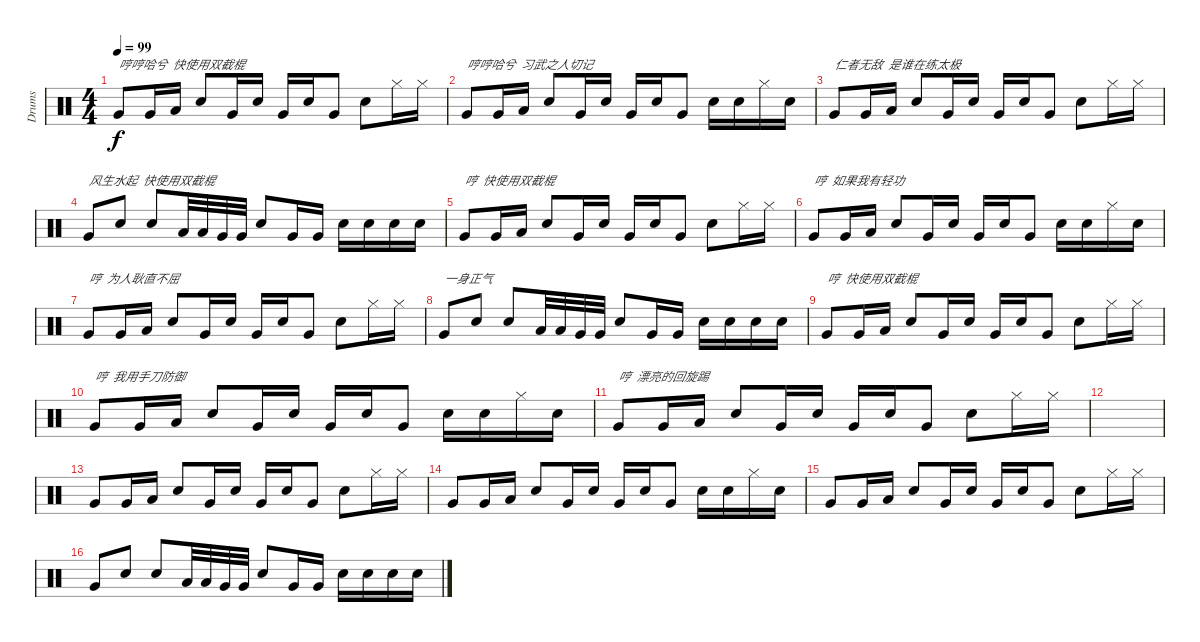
\track ("Drums" "Drums") {instrument percussion}
\staff {score}
\articulation defaults
\ts (4 4)
\tempo 99
\clef neutral
\ks c "Very Low Tom (hit)".8{txt "哼哼哈兮  快使用双截棍" dy f} "Very Low Tom (hit)".16 "Low Floor Tom (hit)".16 "Snare (hit) 2".8 "Very Low Tom (hit)".16 "Snare (hit) 2".16 "Very Low Tom (hit)".16 "Snare (hit) 2".16 "Very Low Tom (hit)".8 "Snare (hit) 2".8 "Hi-Hat (closed)".16 "Hi-Hat (closed)".16
|
"Very Low Tom (hit)".8{txt "哼哼哈兮  习武之人切记"} "Very Low Tom (hit)".16 "Low Floor Tom (hit)".16 "Snare (hit) 2".8 "Very Low Tom (hit)".16 "Snare (hit) 2".16 "Very Low Tom (hit)".16 "Snare (hit) 2".16 "Very Low Tom (hit)".8 "Snare (hit) 2".16 "Snare (hit) 2".16 "Hi-Hat (closed)".16 "Snare (hit) 2".16 |
"Very Low Tom (hit)".8{txt "仁者无敌  是谁在练太极"} "Very Low Tom (hit)".16 "Low Floor Tom (hit)".16 "Snare (hit) 2".8 "Very Low Tom (hit)".16 "Snare (hit) 2".16 "Very Low Tom (hit)".16 "Snare (hit) 2".16 "Very Low Tom (hit)".8 "Snare (hit) 2".8 "Hi-Hat (closed)".16 "Hi-Hat (closed)".16 |
"Very Low Tom (hit)".8{txt "风生水起  快使用双截棍 "} "Snare (hit) 2".8 "Snare (hit) 2".8 "Low Tom (hit)".32 "Low Tom (hit)".32 "Very Low Tom (hit)".32 "Very Low Tom (hit)".32 "Snare (hit) 2".8 "Very Low Tom (hit)".16 "Very Low Tom (hit)".16 "Snare (hit) 2".16 "Snare (hit) 2".16 "Snare (hit) 2".16 "Snare (hit) 2".16 |
"Very Low Tom (hit)".8{txt "哼  快使用双截棍"} "Very Low Tom (hit)".16 "Low Floor Tom (hit)".16 "Snare (hit) 2".8 "Very Low Tom (hit)".16 "Snare (hit) 2".16 "Very Low Tom (hit)".16 "Snare (hit) 2".16 "Very Low Tom (hit)".8 "Snare (hit) 2".8 "Hi-Hat (closed)".16 "Hi-Hat (closed)".16 |
"Very Low Tom (hit)".8{txt "哼  如果我有轻功"} "Very Low Tom (hit)".16 "Low Floor Tom (hit)".16 "Snare (hit) 2".8 "Very Low Tom (hit)".16 "Snare (hit) 2".16 "Very Low Tom (hit)".16 "Snare (hit) 2".16 "Very Low Tom (hit)".8 "Snare (hit) 2".16 "Snare (hit) 2".16 "Hi-Hat (closed)".16 "Snare (hit) 2".16 |
"Very Low Tom (hit)".8{txt "哼  为人耿直不屈"} "Very Low Tom (hit)".16 "Low Floor Tom (hit)".16 "Snare (hit) 2".8 "Very Low Tom (hit)".16 "Snare (hit) 2".16 "Very Low Tom (hit)".16 "Snare (hit) 2".16 "Very Low Tom (hit)".8 "Snare (hit) 2".8 "Hi-Hat (closed)".16 "Hi-Hat (closed)".16 |
"Very Low Tom (hit)".8{txt "一身正气 "} "Snare (hit) 2".8 "Snare (hit) 2".8 "Low Tom (hit)".32 "Low Tom (hit)".32 "Very Low Tom (hit)".32 "Very Low Tom (hit)".32 "Snare (hit) 2".8 "Very Low Tom (hit)".16 "Very Low Tom (hit)".16 "Snare (hit) 2".16 "Snare (hit) 2".16 "Snare (hit) 2".16 "Snare (hit) 2".16 |
"Very Low Tom (hit)".8{txt "哼  快使用双截棍"} "Very Low Tom (hit)".16 "Low Floor Tom (hit)".16 "Snare (hit) 2".8 "Very Low Tom (hit)".16 "Snare (hit) 2".16 "Very Low Tom (hit)".16 "Snare (hit) 2".16 "Very Low Tom (hit)".8 "Snare (hit) 2".8 "Hi-Hat (closed)".16 "Hi-Hat (closed)".16 |
"Very Low Tom (hit)".8{txt "哼  我用手刀防御"} "Very Low Tom (hit)".16 "Low Floor Tom (hit)".16 "Snare (hit) 2".8 "Very Low Tom (hit)".16 "Snare (hit) 2".16 "Very Low Tom (hit)".16 "Snare (hit) 2".16 "Very Low Tom (hit)".8 "Snare (hit) 2".16 "Snare (hit) 2".16 "Hi-Hat (closed)".16 "Snare (hit) 2".16 |
"Very Low Tom (hit)".8{txt "哼  漂亮的回旋踢"} "Very Low Tom (hit)".16 "Low Floor Tom (hit)".16 "Snare (hit) 2".8 "Very Low Tom (hit)".16 "Snare (hit) 2".16 "Very Low Tom (hit)".16 "Snare (hit) 2".16 "Very Low Tom (hit)".8 "Snare (hit) 2".8 "Hi-Hat (closed)".16 "Hi-Hat (closed)".16 |
|
"Very Low Tom (hit)".8 "Very Low Tom (hit)".16 "Low Floor Tom (hit)".16 "Snare (hit) 2".8 "Very Low Tom (hit)".16 "Snare (hit) 2".16 "Very Low Tom (hit)".16 "Snare (hit) 2".16 "Very Low Tom (hit)".8 "Snare (hit) 2".8 "Hi-Hat (closed)".16 "Hi-Hat (closed)".16 |
"Very Low Tom (hit)".8 "Very Low Tom (hit)".16 "Low Floor Tom (hit)".16 "Snare (hit) 2".8 "Very Low Tom (hit)".16 "Snare (hit) 2".16 "Very Low Tom (hit)".16 "Snare (hit) 2".16 "Very Low Tom (hit)".8 "Snare (hit) 2".16 "Snare (hit) 2".16 "Hi-Hat (closed)".16 "Snare (hit) 2".16 |
"Very Low Tom (hit)".8 "Very Low Tom (hit)".16 "Low Floor Tom (hit)".16 "Snare (hit) 2".8 "Very Low Tom (hit)".16 "Snare (hit) 2".16 "Very Low Tom (hit)".16 "Snare (hit) 2".16 "Very Low Tom (hit)".8 "Snare (hit) 2".8 "Hi-Hat (closed)".16 "Hi-Hat (closed)".16 |
"Very Low Tom (hit)".8 "Snare (hit) 2".8 "Snare (hit) 2".8 "Low Tom (hit)".32 "Low Tom (hit)".32 "Very Low Tom (hit)".32 "Very Low Tom (hit)".32 "Snare (hit) 2".8 "Very Low Tom (hit)".16 "Very Low Tom (hit)".16 "Snare (hit) 2".16 "Snare (hit) 2".16 "Snare (hit) 2".16 "Snare (hit) 2".16
